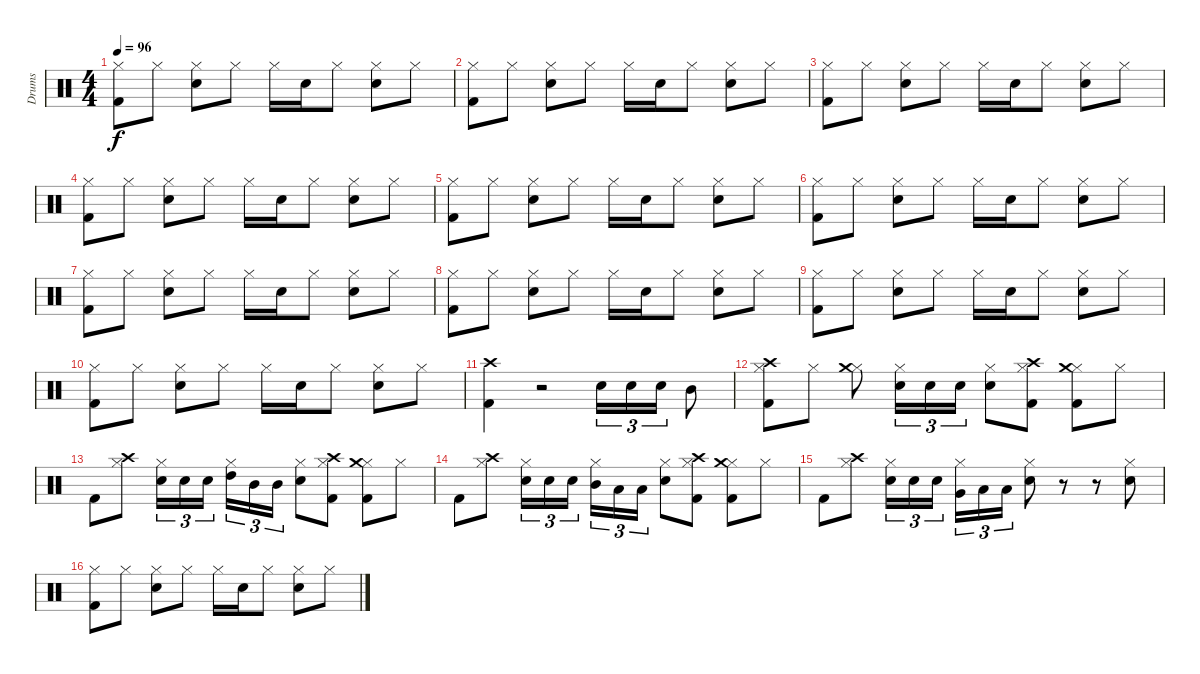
\track ("Drums" "Drums") {instrument percussion}
\staff {score}
\articulation defaults
\ts (4 4)
\tempo 96
\clef neutral
\ks c
("Kick (hit) 2" "Hi-Hat (closed)").8{dy f} "Hi-Hat (closed)".8 ("Snare (hit) 2" "Hi-Hat (closed)").8 "Hi-Hat (closed)".8 "Hi-Hat (closed)".16 "Snare (hit) 2".16 "Hi-Hat (closed)".8 ("Snare (hit) 2" "Hi-Hat (closed)").8 "Hi-Hat (closed)".8 |
("Kick (hit) 2" "Hi-Hat (closed)").8 "Hi-Hat (closed)".8 ("Snare (hit) 2" "Hi-Hat (closed)").8 "Hi-Hat (closed)".8 "Hi-Hat (closed)".16 "Snare (hit) 2".16 "Hi-Hat (closed)".8 ("Snare (hit) 2" "Hi-Hat (closed)").8 "Hi-Hat (closed)".8 |
("Kick (hit) 2" "Hi-Hat (closed)").8 "Hi-Hat (closed)".8 ("Snare (hit) 2" "Hi-Hat (closed)").8 "Hi-Hat (closed)".8 "Hi-Hat (closed)".16 "Snare (hit) 2".16 "Hi-Hat (closed)".8 ("Snare (hit) 2" "Hi-Hat (closed)").8 "Hi-Hat (closed)".8 |
("Kick (hit) 2" "Hi-Hat (closed)").8 "Hi-Hat (closed)".8 ("Snare (hit) 2" "Hi-Hat (closed)").8 "Hi-Hat (closed)".8 "Hi-Hat (closed)".16 "Snare (hit) 2".16 "Hi-Hat (closed)".8 ("Snare (hit) 2" "Hi-Hat (closed)").8 "Hi-Hat (closed)".8 |
("Kick (hit) 2" "Hi-Hat (closed)").8 "Hi-Hat (closed)".8 ("Snare (hit) 2" "Hi-Hat (closed)").8 "Hi-Hat (closed)".8 "Hi-Hat (closed)".16 "Snare (hit) 2".16 "Hi-Hat (closed)".8 ("Snare (hit) 2" "Hi-Hat (closed)").8 "Hi-Hat (closed)".8 |
("Kick (hit) 2" "Hi-Hat (closed)").8 "Hi-Hat (closed)".8 ("Snare (hit) 2" "Hi-Hat (closed)").8 "Hi-Hat (closed)".8 "Hi-Hat (closed)".16 "Snare (hit) 2".16 "Hi-Hat (closed)".8 ("Snare (hit) 2" "Hi-Hat (closed)").8 "Hi-Hat (closed)".8 |
("Kick (hit) 2" "Hi-Hat (closed)").8 "Hi-Hat (closed)".8 ("Snare (hit) 2" "Hi-Hat (closed)").8 "Hi-Hat (closed)".8 "Hi-Hat (closed)".16 "Snare (hit) 2".16 "Hi-Hat (closed)".8 ("Snare (hit) 2" "Hi-Hat (closed)").8 "Hi-Hat (closed)".8 |
("Kick (hit) 2" "Hi-Hat (closed)").8 "Hi-Hat (closed)".8 ("Snare (hit) 2" "Hi-Hat (closed)").8 "Hi-Hat (closed)".8 "Hi-Hat (closed)".16 "Snare (hit) 2".16 "Hi-Hat (closed)".8 ("Snare (hit) 2" "Hi-Hat (closed)").8 "Hi-Hat (closed)".8 |
("Kick (hit) 2" "Hi-Hat (closed)").8 "Hi-Hat (closed)".8 ("Snare (hit) 2" "Hi-Hat (closed)").8 "Hi-Hat (closed)".8 "Hi-Hat (closed)".16 "Snare (hit) 2".16 "Hi-Hat (closed)".8 ("Snare (hit) 2" "Hi-Hat (closed)").8 "Hi-Hat (closed)".8 |
("Kick (hit) 2" "Hi-Hat (closed)").8 "Hi-Hat (closed)".8 ("Snare (hit) 2" "Hi-Hat (closed)").8 "Hi-Hat (closed)".8 "Hi-Hat (closed)".16 "Snare (hit) 2".16 "Hi-Hat (closed)".8 ("Snare (hit) 2" "Hi-Hat (closed)").8 "Hi-Hat (closed)".8 |
("Kick (hit) 2" "Crash high (hit)").4 r.2 "Snare (hit) 2".16{tu (3 2)} "Snare (hit) 2".16{tu (3 2)} "Snare (hit) 2".16{tu (3 2)} "Mid Tom (hit)".8 |
("Kick (hit) 2" "Hi-Hat (closed)" "Crash high (hit)").8 "Hi-Hat (closed)".8 ("Hi-Hat (closed)" "Crash medium (hit)").8 ("Snare (hit) 2" "Hi-Hat (closed)").16{tu (3 2)} "Snare (hit) 2".16{tu (3 2)} "Snare (hit) 2".16{tu (3 2)} ("Snare (hit) 2" "Hi-Hat (closed)").8 ("Kick (hit) 2" "Hi-Hat (closed)" "Crash high (hit)").8 ("Kick (hit) 2" "Hi-Hat (closed)" "Crash medium (hit)").8 "Hi-Hat (closed)".8 |
"Kick (hit) 2".8 ("Hi-Hat (closed)" "Crash high (hit)").8 ("Snare (hit) 2" "Hi-Hat (closed)").16{tu (3 2)} "Snare (hit) 2".16{tu (3 2)} "Snare (hit) 2".16{tu (3 2)} ("Hi-Hat (closed)" "High Tom (hit)").16{tu (3 2)} "Mid Tom (hit)".16{tu (3 2)} "Mid Tom (hit)".16{tu (3 2)} ("Snare (hit) 2" "Hi-Hat (closed)").8 ("Kick (hit) 2" "Hi-Hat (closed)" "Crash high (hit)").8 ("Kick (hit) 2" "Hi-Hat (closed)" "Crash medium (hit)").8 "Hi-Hat (closed)".8 |
"Kick (hit) 2".8 ("Hi-Hat (closed)" "Crash high (hit)").8 ("Snare (hit) 2" "Hi-Hat (closed)").16{tu (3 2)} "Snare (hit) 2".16{tu (3 2)} "Snare (hit) 2".16{tu (3 2)} ("Hi-Hat (closed)" "Mid Tom (hit)").16{tu (3 2)} "Low Tom (hit)".16{tu (3 2)} "Low Tom (hit)".16{tu (3 2)} ("Snare (hit) 2" "Hi-Hat (closed)").8 ("Kick (hit) 2" "Hi-Hat (closed)" "Crash high (hit)").8 ("Kick (hit) 2" "Hi-Hat (closed)" "Crash medium (hit)").8 "Hi-Hat (closed)".8 |
"Kick (hit) 2".8 ("Hi-Hat (closed)" "Crash high (hit)").8 ("Snare (hit) 2" "Hi-Hat (closed)").16{tu (3 2)} "Snare (hit) 2".16{tu (3 2)} "Snare (hit) 2".16{tu (3 2)} ("Hi-Hat (closed)" "Very Low Tom (hit)").16{tu (3 2)} "Low Floor Tom (hit)".16{tu (3 2)} "Low Floor Tom (hit)".16{tu (3 2)} ("Snare (hit) 2" "Hi-Hat (closed)").8 r.8 r.8 ("Snare (hit) 2" "Hi-Hat (closed)").8 |
("Kick (hit) 2" "Hi-Hat (closed)").8 "Hi-Hat (closed)".8 ("Snare (hit) 2" "Hi-Hat (closed)").8 "Hi-Hat (closed)".8 "Hi-Hat (closed)".16 "Snare (hit) 2".16 "Hi-Hat (closed)".8 ("Snare (hit) 2" "Hi-Hat (closed)").8 "Hi-Hat (closed)".8
